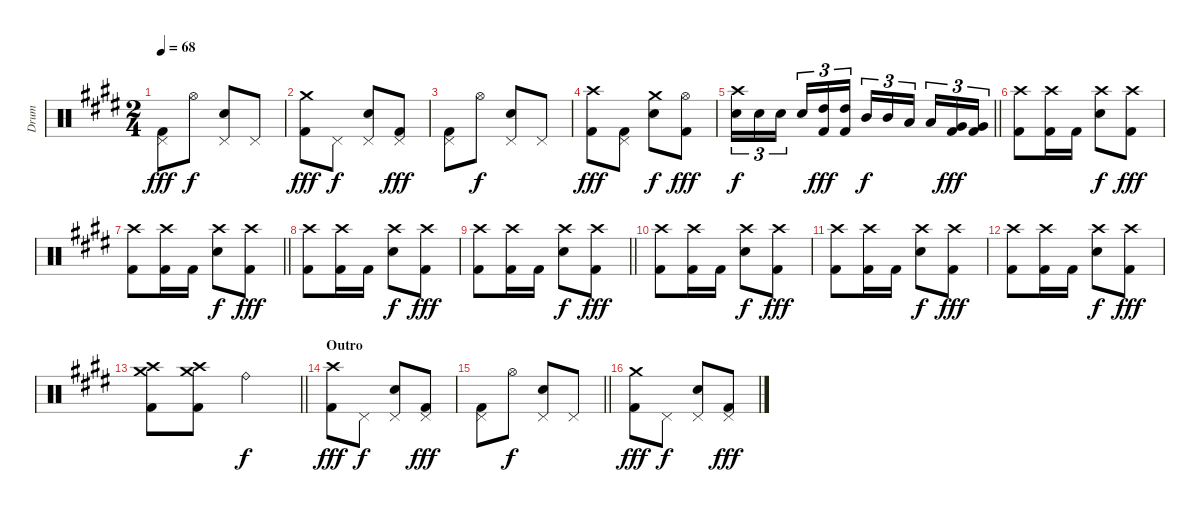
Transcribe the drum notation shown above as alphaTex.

\track ("Drum" "Drum") {instrument percussion}
\staff {score}
\articulation defaults
\ts (2 4)
\tempo 68
\clef neutral
\ks e
("Pedal Hi-Hat (hit)" "Kick (hit) 2").8{dy fff} "Hi-Hat (open)".8{dy f} ("Pedal Hi-Hat (hit)" "Snare (hit) 2").8 "Pedal Hi-Hat (hit)".8 |
("Crash medium (hit)" "Kick (hit) 2").8{dy fff} "Pedal Hi-Hat (hit)".8{dy f} ("Pedal Hi-Hat (hit)" "Snare (hit) 2").8 ("Pedal Hi-Hat (hit)" "Kick (hit) 2").8{dy fff} |
("Pedal Hi-Hat (hit)" "Kick (hit) 2").8 "Hi-Hat (open)".8{dy f} ("Pedal Hi-Hat (hit)" "Snare (hit) 2").8 "Pedal Hi-Hat (hit)".8 |
("Crash high (hit)" "Kick (hit) 2").8{dy fff} ("Pedal Hi-Hat (hit)" "Kick (hit) 2").8 ("Crash medium (hit)" "Snare (hit) 2").8{dy f} ("Hi-Hat (open)" "Kick (hit) 2").8{dy fff} |
\barLineRight lightlight
("Crash high (hit)" "Snare (hit) 2").16{tu (3 2) dy f} "Snare (hit) 2".16{tu (3 2)} "Snare (hit) 2".16{tu (3 2) beam splitsecondary} "Snare (hit) 2".16{tu (3 2)} ("High Tom (hit)" "Kick (hit) 2").16{tu (3 2) dy fff} ("High Tom (hit)" "Kick (hit) 2").16{tu (3 2)} "Mid Tom (hit)".16{tu (3 2) dy f} "Mid Tom (hit)".16{tu (3 2)} "Low Tom (hit)".16{tu (3 2) beam splitsecondary} "Low Tom (hit)".16{tu (3 2)} ("Very Low Tom (hit)" "Kick (hit) 2").16{tu (3 2) dy fff} ("Very Low Tom (hit)" "Kick (hit) 2").16{tu (3 2)} |
\section ("" "")
("Crash high (hit)" "Kick (hit) 2").8 ("Crash high (hit)" "Kick (hit) 2").16 "Kick (hit) 2".16 ("Crash high (hit)" "Snare (hit) 2").8{dy f} ("Crash high (hit)" "Kick (hit) 2").8{dy fff} |
\barLineRight lightlight
("Crash high (hit)" "Kick (hit) 2").8 ("Crash high (hit)" "Kick (hit) 2").16 "Kick (hit) 2".16 ("Crash high (hit)" "Snare (hit) 2").8{dy f} ("Crash high (hit)" "Kick (hit) 2").8{dy fff} |
("Crash high (hit)" "Kick (hit) 2").8 ("Crash high (hit)" "Kick (hit) 2").16 "Kick (hit) 2".16 ("Crash high (hit)" "Snare (hit) 2").8{dy f} ("Crash high (hit)" "Kick (hit) 2").8{dy fff} |
\barLineRight lightlight
("Crash high (hit)" "Kick (hit) 2").8 ("Crash high (hit)" "Kick (hit) 2").16 "Kick (hit) 2".16 ("Crash high (hit)" "Snare (hit) 2").8{dy f} ("Crash high (hit)" "Kick (hit) 2").8{dy fff} |
("Crash high (hit)" "Kick (hit) 2").8 ("Crash high (hit)" "Kick (hit) 2").16 "Kick (hit) 2".16 ("Crash high (hit)" "Snare (hit) 2").8{dy f} ("Crash high (hit)" "Kick (hit) 2").8{dy fff} |
("Crash high (hit)" "Kick (hit) 2").8 ("Crash high (hit)" "Kick (hit) 2").16 "Kick (hit) 2".16 ("Crash high (hit)" "Snare (hit) 2").8{dy f} ("Crash high (hit)" "Kick (hit) 2").8{dy fff} |
("Crash high (hit)" "Kick (hit) 2").8 ("Crash high (hit)" "Kick (hit) 2").16 "Kick (hit) 2".16 ("Crash high (hit)" "Snare (hit) 2").8{dy f} ("Crash high (hit)" "Kick (hit) 2").8{dy fff} |
\barLineRight lightlight
("Crash high (hit)" "Crash medium (hit)" "Kick (hit) 2").8 ("Crash high (hit)" "Crash medium (hit)" "Kick (hit) 2").8 "Ride (bell)".4{dy f} |
\section ("" "Outro")
("Crash high (hit)" "Kick (hit) 2").8{dy fff} "Pedal Hi-Hat (hit)".8{dy f} ("Pedal Hi-Hat (hit)" "Snare (hit) 2").8 ("Pedal Hi-Hat (hit)" "Kick (hit) 2").8{dy fff} |
\barLineRight lightlight
("Pedal Hi-Hat (hit)" "Kick (hit) 2").8 "Hi-Hat (open)".8{dy f} ("Pedal Hi-Hat (hit)" "Snare (hit) 2").8 "Pedal Hi-Hat (hit)".8 |
("Crash medium (hit)" "Kick (hit) 2").8{dy fff} "Pedal Hi-Hat (hit)".8{dy f} ("Pedal Hi-Hat (hit)" "Snare (hit) 2").8 ("Pedal Hi-Hat (hit)" "Kick (hit) 2").8{dy fff}
